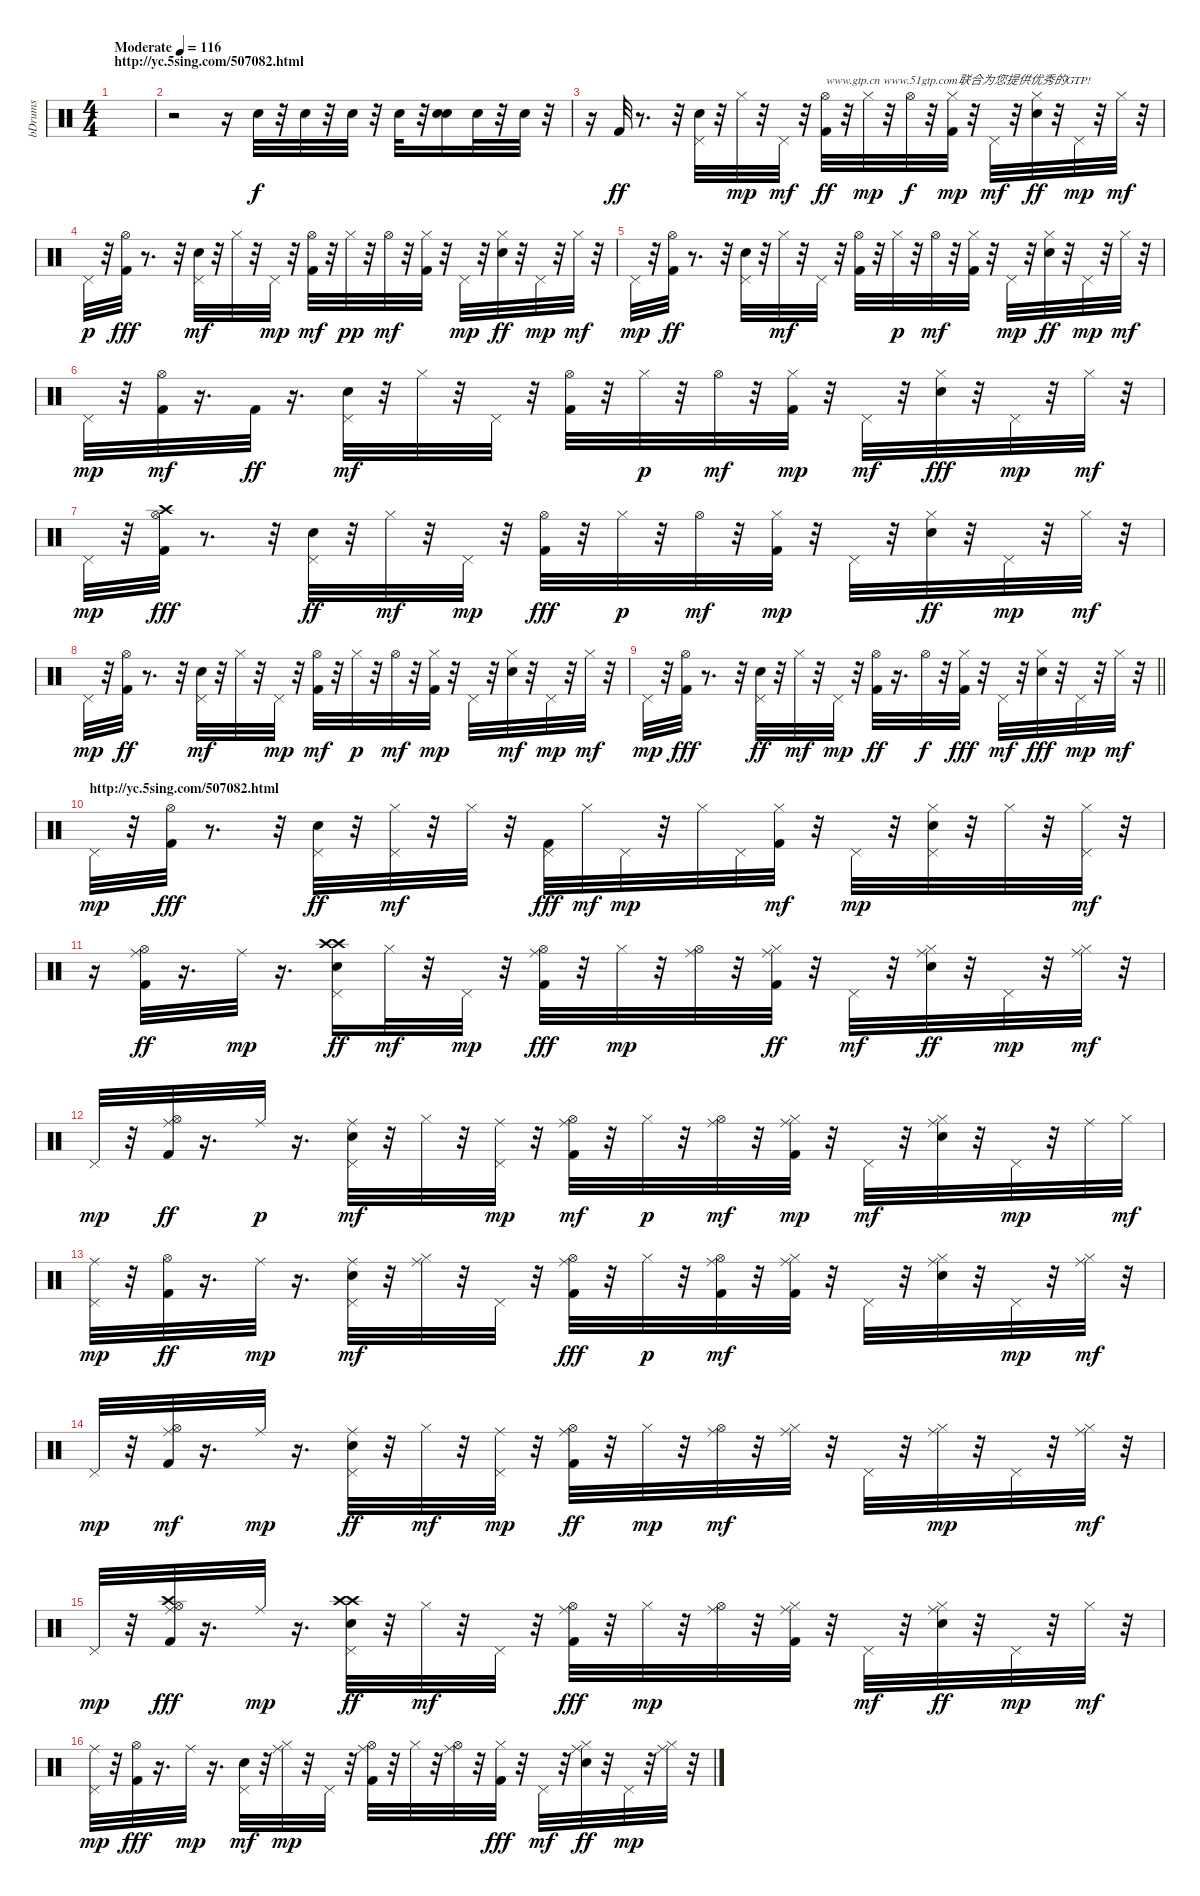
\track ("bDrums" "bDrums") {instrument percussion}
\staff {score}
\articulation defaults
\ts (4 4)
\section ("" "http://yc.5sing.com/507082.html")
\tempo (116 "Moderate")
\clef neutral
\ks c
|
r.2 r.16 "Snare (hit) 2".32 r.32 "Snare (hit) 2".32 r.32 "Snare (hit) 2".32 r.32 "Snare (hit) 2".32 r.32 ("Snare (hit) 2" "Snare (hit) 2").16 "Snare (hit) 2".32 r.32 "Snare (hit) 2".32 r.32 |
r.16 "Kick (hit) 2".32{dy ff} r.8{d} r.32 ("Pedal Hi-Hat (hit)" "Snare (hit) 2").32 r.32 "Hi-Hat (closed)".32{dy mp} r.32 "Pedal Hi-Hat (hit)".32{dy mf} r.32 ("Hi-Hat (open)" "Kick (hit) 2").32{txt "www.gtp.cn www.51gtp.com联合为您提供优秀的GTP!" dy ff} r.32 "Hi-Hat (closed)".32{dy mp} r.32 "Hi-Hat (open)".32{dy f} r.32 ("Kick (hit) 2" "Hi-Hat (closed)").32{dy mp} r.32 "Pedal Hi-Hat (hit)".32{dy mf} r.32 ("Hi-Hat (closed)" "Snare (hit) 2").32{dy ff} r.32 "Pedal Hi-Hat (hit)".32{dy mp} r.32 "Hi-Hat (closed)".32{dy mf} r.32 |
"Pedal Hi-Hat (hit)".32{dy p} r.32 ("Hi-Hat (open)" "Kick (hit) 2").32{dy fff} r.8{d} r.32 ("Snare (hit) 2" "Pedal Hi-Hat (hit)").32{dy mf} r.32 "Hi-Hat (closed)".32 r.32 "Pedal Hi-Hat (hit)".32{dy mp} r.32 ("Kick (hit) 2" "Hi-Hat (open)").32{dy mf} r.32 "Hi-Hat (closed)".32{dy pp} r.32 "Hi-Hat (open)".32{dy mf} r.32 ("Kick (hit) 2" "Hi-Hat (closed)").32 r.32 "Pedal Hi-Hat (hit)".32{dy mp} r.32 ("Hi-Hat (closed)" "Snare (hit) 2").32{dy ff} r.32 "Pedal Hi-Hat (hit)".32{dy mp} r.32 "Hi-Hat (closed)".32{dy mf} r.32 |
"Pedal Hi-Hat (hit)".32{dy mp} r.32 ("Hi-Hat (open)" "Kick (hit) 2").32{dy ff} r.8{d} r.32 ("Pedal Hi-Hat (hit)" "Snare (hit) 2").32 r.32 "Hi-Hat (closed)".32{dy mf} r.32 "Pedal Hi-Hat (hit)".32 r.32 ("Kick (hit) 2" "Hi-Hat (open)").32 r.32 "Hi-Hat (closed)".32{dy p} r.32 "Hi-Hat (open)".32{dy mf} r.32 ("Kick (hit) 2" "Hi-Hat (closed)").32 r.32 "Pedal Hi-Hat (hit)".32{dy mp} r.32 ("Hi-Hat (closed)" "Snare (hit) 2").32{dy ff} r.32 "Pedal Hi-Hat (hit)".32{dy mp} r.32 "Hi-Hat (closed)".32{dy mf} r.32 |
"Pedal Hi-Hat (hit)".32{dy mp} r.32 ("Kick (hit) 2" "Hi-Hat (open)").32{dy mf} r.16{d} "Kick (hit) 2".32{dy ff} r.16{d} ("Snare (hit) 2" "Pedal Hi-Hat (hit)").32{dy mf} r.32 "Hi-Hat (closed)".32 r.32 "Pedal Hi-Hat (hit)".32 r.32 ("Kick (hit) 2" "Hi-Hat (open)").32 r.32 "Hi-Hat (closed)".32{dy p} r.32 "Hi-Hat (open)".32{dy mf} r.32 ("Kick (hit) 2" "Hi-Hat (closed)").32{dy mp} r.32 "Pedal Hi-Hat (hit)".32{dy mf} r.32 ("Hi-Hat (closed)" "Snare (hit) 2").32{dy fff} r.32 "Pedal Hi-Hat (hit)".32{dy mp} r.32 "Hi-Hat (closed)".32{dy mf} r.32 |
"Pedal Hi-Hat (hit)".32{dy mp} r.32 ("Crash high (hit)" "Hi-Hat (open)" "Kick (hit) 2").32{dy fff} r.8{d} r.32 ("Pedal Hi-Hat (hit)" "Snare (hit) 2").32{dy ff} r.32 "Hi-Hat (closed)".32{dy mf} r.32 "Pedal Hi-Hat (hit)".32{dy mp} r.32 ("Hi-Hat (open)" "Kick (hit) 2").32{dy fff} r.32 "Hi-Hat (closed)".32{dy p} r.32 "Hi-Hat (open)".32{dy mf} r.32 ("Kick (hit) 2" "Hi-Hat (closed)").32{dy mp} r.32 "Pedal Hi-Hat (hit)".32 r.32 ("Hi-Hat (closed)" "Snare (hit) 2").32{dy ff} r.32 "Pedal Hi-Hat (hit)".32{dy mp} r.32 "Hi-Hat (closed)".32{dy mf} r.32 |
"Pedal Hi-Hat (hit)".32{dy mp} r.32 ("Hi-Hat (open)" "Kick (hit) 2").32{dy ff} r.8{d} r.32 ("Snare (hit) 2" "Pedal Hi-Hat (hit)").32{dy mf} r.32 "Hi-Hat (closed)".32 r.32 "Pedal Hi-Hat (hit)".32{dy mp} r.32 ("Kick (hit) 2" "Hi-Hat (open)").32{dy mf} r.32 "Hi-Hat (closed)".32{dy p} r.32 "Hi-Hat (open)".32{dy mf} r.32 ("Kick (hit) 2" "Hi-Hat (closed)").32{dy mp} r.32 "Pedal Hi-Hat (hit)".32 r.32 ("Snare (hit) 2" "Hi-Hat (closed)").32{dy mf} r.32 "Pedal Hi-Hat (hit)".32{dy mp} r.32 "Hi-Hat (closed)".32{dy mf} r.32 |
\barLineRight lightlight "Pedal Hi-Hat (hit)".32{dy mp}
r.32 ("Hi-Hat (open)" "Kick (hit) 2").32{dy fff} r.8{d} r.32 ("Pedal Hi-Hat (hit)" "Snare (hit) 2").32{dy ff} r.32 "Hi-Hat (closed)".32{dy mf} r.32 "Pedal Hi-Hat (hit)".32{dy mp} r.32 ("Hi-Hat (open)" "Kick (hit) 2").32{dy ff} r.16{d} "Hi-Hat (open)".32{dy f} r.32 ("Hi-Hat (closed)" "Kick (hit) 2").32{dy fff} r.32 "Pedal Hi-Hat (hit)".32{dy mf} r.32 ("Hi-Hat (closed)" "Snare (hit) 2").32{dy fff} r.32 "Pedal Hi-Hat (hit)".32{dy mp} r.32 "Hi-Hat (closed)".32{dy mf} r.32 |
\section ("" "http://yc.5sing.com/507082.html")
"Pedal Hi-Hat (hit)".32{dy mp} r.32 ("Hi-Hat (open)" "Kick (hit) 2").32{dy fff} r.8{d} r.32 ("Pedal Hi-Hat (hit)" "Snare (hit) 2").32{dy ff} r.32 ("Hi-Hat (closed)" "Pedal Hi-Hat (hit)").32{dy mf} r.32 "Hi-Hat (closed)".32 r.32 ("Pedal Hi-Hat (hit)" "Kick (hit) 2").32{dy fff} "Hi-Hat (closed)".32{dy mf} "Pedal Hi-Hat (hit)".32{dy mp} r.32 "Hi-Hat (closed)".32 "Pedal Hi-Hat (hit)".32 ("Kick (hit) 2" "Hi-Hat (closed)").32{dy mf} r.32 "Pedal Hi-Hat (hit)".32{dy mp} r.32 ("Hi-Hat (closed)" "Snare (hit) 2" "Pedal Hi-Hat (hit)").32 r.32 "Hi-Hat (closed)".32 r.32 ("Pedal Hi-Hat (hit)" "Hi-Hat (closed)").32{dy mf} r.32 |
r.16 ("Hi-Hat (open)" "Ride (middle)" "Kick (hit) 2").32{dy ff} r.16{d} "Ride (middle)".32{dy mp} r.16{d} ("Pedal Hi-Hat (hit)" "Crash high (hit)" "Crash high (hit)" "Snare (hit) 2").16{dy ff} "Hi-Hat (closed)".32{dy mf} r.32 "Pedal Hi-Hat (hit)".32{dy mp} r.32 ("Ride (middle)" "Hi-Hat (open)" "Kick (hit) 2").32{dy fff} r.32 "Hi-Hat (closed)".32{dy mp} r.32 ("Ride (middle)" "Hi-Hat (open)").32 r.32 ("Ride (middle)" "Hi-Hat (closed)" "Kick (hit) 2").32{dy ff} r.32 "Pedal Hi-Hat (hit)".32{dy mf} r.32 ("Ride (middle)" "Hi-Hat (closed)" "Snare (hit) 2").32{dy ff} r.32 "Pedal Hi-Hat (hit)".32{dy mp} r.32 ("Ride (middle)" "Hi-Hat (closed)").32{dy mf} r.32 |
"Pedal Hi-Hat (hit)".32{dy mp} r.32 ("Ride (middle)" "Hi-Hat (open)" "Kick (hit) 2").32{dy ff} r.16{d} "Ride (middle)".32{dy p} r.16{d} ("Ride (middle)" "Snare (hit) 2" "Pedal Hi-Hat (hit)").32{dy mf} r.32 "Hi-Hat (closed)".32 r.32 ("Ride (middle)" "Pedal Hi-Hat (hit)").32{dy mp} r.32 ("Ride (middle)" "Kick (hit) 2" "Hi-Hat (open)").32{dy mf} r.32 "Hi-Hat (closed)".32{dy p} r.32 ("Ride (middle)" "Hi-Hat (open)").32{dy mf} r.32 ("Kick (hit) 2" "Ride (middle)" "Hi-Hat (closed)").32{dy mp} r.32 "Pedal Hi-Hat (hit)".32{dy mf} r.32 ("Ride (middle)" "Snare (hit) 2" "Hi-Hat (closed)").32 r.32 "Pedal Hi-Hat (hit)".32{dy mp} r.32 "Ride (middle)".32 "Hi-Hat (closed)".32{dy mf} |
("Ride (middle)" "Pedal Hi-Hat (hit)").32{dy mp} r.32 ("Hi-Hat (open)" "Kick (hit) 2").32{dy ff} r.16{d} "Ride (middle)".32{dy mp} r.16{d} ("Ride (middle)" "Snare (hit) 2" "Pedal Hi-Hat (hit)").32{dy mf} r.32 ("Ride (middle)" "Hi-Hat (closed)").32 r.32 "Pedal Hi-Hat (hit)".32 r.32 ("Ride (middle)" "Hi-Hat (open)" "Kick (hit) 2").32{dy fff} r.32 "Hi-Hat (closed)".32{dy p} r.32 ("Ride (middle)" "Kick (hit) 2" "Hi-Hat (open)").32{dy mf} r.32 ("Ride (middle)" "Kick (hit) 2" "Hi-Hat (closed)").32 r.32 "Pedal Hi-Hat (hit)".32 r.32 ("Ride (middle)" "Snare (hit) 2" "Hi-Hat (closed)").32 r.32 "Pedal Hi-Hat (hit)".32{dy mp} r.32 ("Ride (middle)" "Hi-Hat (closed)").32{dy mf} r.32 |
"Pedal Hi-Hat (hit)".32{dy mp} r.32 ("Ride (middle)" "Kick (hit) 2" "Hi-Hat (open)").32{dy mf} r.16{d} "Ride (middle)".32{dy mp} r.16{d} ("Ride (middle)" "Pedal Hi-Hat (hit)" "Snare (hit) 2").32{dy ff} r.32 "Hi-Hat (closed)".32{dy mf} r.32 ("Ride (middle)" "Pedal Hi-Hat (hit)").32{dy mp} r.32 ("Ride (middle)" "Hi-Hat (open)" "Kick (hit) 2").32{dy ff} r.32 "Hi-Hat (closed)".32{dy mp} r.32 ("Ride (middle)" "Hi-Hat (open)").32{dy mf} r.32 ("Ride (middle)" "Hi-Hat (closed)").32 r.32 "Pedal Hi-Hat (hit)".32 r.32 ("Hi-Hat (closed)" "Ride (middle)").32{dy mp} r.32 "Pedal Hi-Hat (hit)".32 r.32 ("Ride (middle)" "Hi-Hat (closed)").32{dy mf} r.32 |
"Pedal Hi-Hat (hit)".32{dy mp} r.32 ("Crash high (hit)" "Hi-Hat (open)" "Ride (middle)" "Kick (hit) 2").32{dy fff} r.16{d} "Ride (middle)".32{dy mp} r.16{d} ("Crash high (hit)" "Crash high (hit)" "Pedal Hi-Hat (hit)" "Snare (hit) 2").32{dy ff} r.32 "Hi-Hat (closed)".32{dy mf} r.32 "Pedal Hi-Hat (hit)".32 r.32 ("Hi-Hat (open)" "Ride (middle)" "Kick (hit) 2").32{dy fff} r.32 "Hi-Hat (closed)".32{dy mp} r.32 ("Hi-Hat (open)" "Ride (middle)").32 r.32 ("Kick (hit) 2" "Ride (middle)" "Hi-Hat (closed)").32 r.32 "Pedal Hi-Hat (hit)".32{dy mf} r.32 ("Ride (middle)" "Hi-Hat (closed)" "Snare (hit) 2").32{dy ff} r.32 "Pedal Hi-Hat (hit)".32{dy mp} r.32 "Hi-Hat (closed)".32{dy mf} r.32 |
("Pedal Hi-Hat (hit)" "Ride (middle)").32{dy mp} r.32 ("Hi-Hat (open)" "Kick (hit) 2").32{dy fff} r.16{d} "Ride (middle)".32{dy mp} r.16{d} ("Snare (hit) 2" "Pedal Hi-Hat (hit)").32{dy mf} r.32 ("Hi-Hat (closed)" "Ride (middle)").32{dy mp} r.32 "Pedal Hi-Hat (hit)".32 r.32 ("Hi-Hat (open)" "Kick (hit) 2" "Ride (middle)").32 r.32 "Hi-Hat (closed)".32 r.32 ("Hi-Hat (open)" "Ride (middle)").32 r.32 ("Hi-Hat (closed)" "Kick (hit) 2").32{dy fff} r.32 "Pedal Hi-Hat (hit)".32{dy mf} r.32 ("Hi-Hat (closed)" "Ride (middle)" "Snare (hit) 2").32{dy ff} r.32 "Pedal Hi-Hat (hit)".32{dy mp} r.32 ("Hi-Hat (closed)" "Ride (middle)").32 r.32
